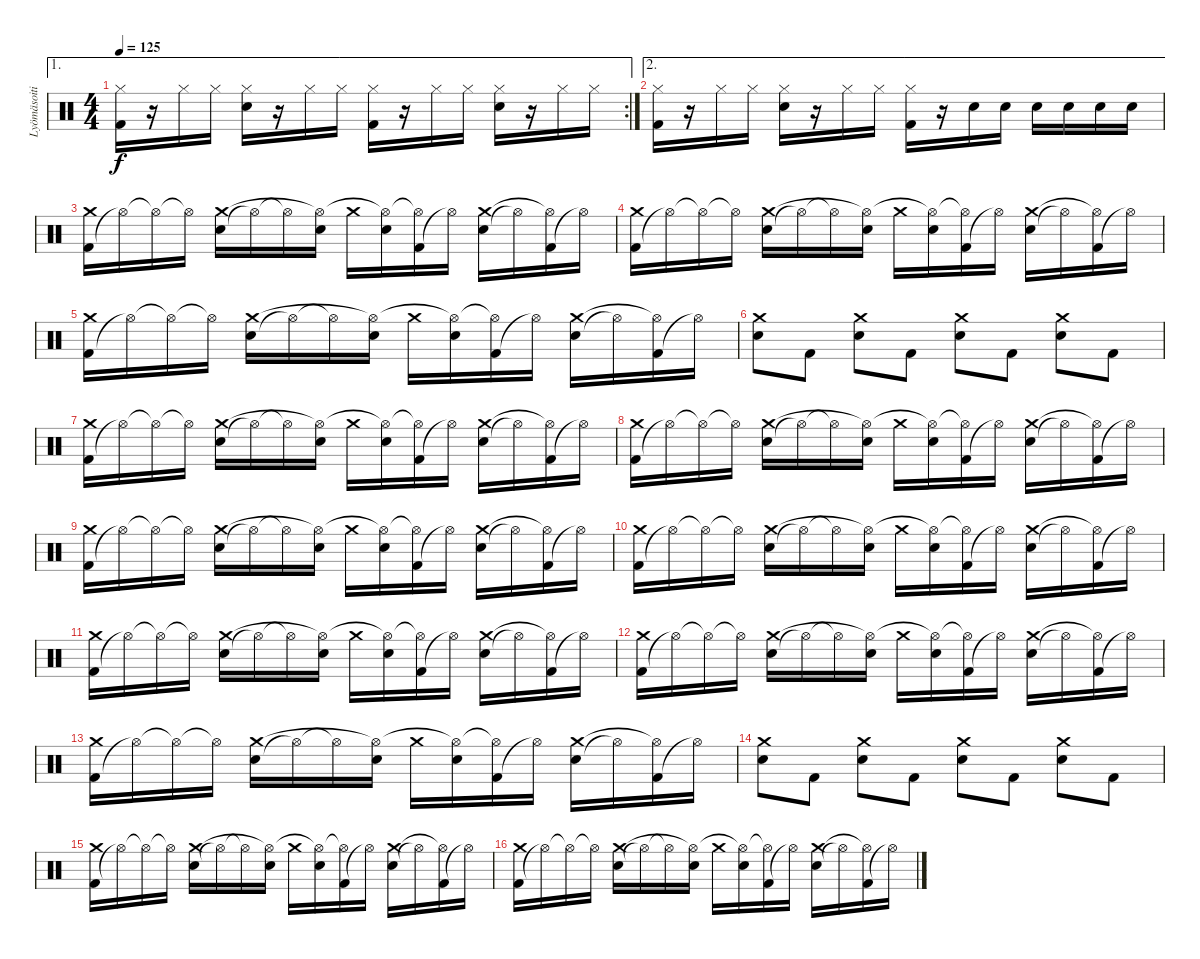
\track ("Lyömäsoitin" "Lyömäsoiti") {instrument percussion}
\staff {score}
\articulation defaults
\ae 1
\rc 2
\ts (4 4)
\tempo 125
\clef neutral
\ks c
("Kick (hit) 2" "Hi-Hat (closed)").16{dy f} r.16 "Hi-Hat (closed)".16 "Hi-Hat (closed)".16 ("Electric Snare (hit)" "Hi-Hat (closed)").16 r.16 "Hi-Hat (closed)".16 "Hi-Hat (closed)".16 ("Kick (hit) 2" "Hi-Hat (closed)").16 r.16 "Hi-Hat (closed)".16 "Hi-Hat (closed)".16 ("Electric Snare (hit)" "Hi-Hat (closed)").16 r.16 "Hi-Hat (closed)".16 "Hi-Hat (closed)".16 |
\ae 2
("Kick (hit) 2" "Hi-Hat (closed)").16 r.16 "Hi-Hat (closed)".16 "Hi-Hat (closed)".16 ("Electric Snare (hit)" "Hi-Hat (closed)").16 r.16 "Hi-Hat (closed)".16 "Hi-Hat (closed)".16 ("Kick (hit) 2" "Hi-Hat (closed)").16 r.16 "Electric Snare (hit)".16 "Electric Snare (hit)".16 "Electric Snare (hit)".16 "Electric Snare (hit)".16 "Electric Snare (hit)".16 "Electric Snare (hit)".16 |
("Kick (hit) 2" "Crash medium (hit)").16 "Hi-Hat (open)"{t}.16 "Hi-Hat (open)"{t}.16 "Hi-Hat (open)"{t}.16 ("Electric Snare (hit)" "Crash medium (hit)").16 "Hi-Hat (open)"{t}.16 "Hi-Hat (open)"{t}.16 ("Electric Snare (hit)" "Hi-Hat (open)"{t}).16 "Crash medium (hit)".16 ("Electric Snare (hit)" "Hi-Hat (open)"{t}).16 ("Kick (hit) 2" "Hi-Hat (open)"{t}).16 "Hi-Hat (open)"{t}.16 ("Electric Snare (hit)" "Crash medium (hit)").16 "Hi-Hat (open)"{t}.16 ("Kick (hit) 2" "Hi-Hat (open)"{t}).16 "Hi-Hat (open)"{t}.16 |
("Kick (hit) 2" "Crash medium (hit)").16 "Hi-Hat (open)"{t}.16 "Hi-Hat (open)"{t}.16 "Hi-Hat (open)"{t}.16 ("Electric Snare (hit)" "Crash medium (hit)").16 "Hi-Hat (open)"{t}.16 "Hi-Hat (open)"{t}.16 ("Electric Snare (hit)" "Hi-Hat (open)"{t}).16 "Crash medium (hit)".16 ("Electric Snare (hit)" "Hi-Hat (open)"{t}).16 ("Kick (hit) 2" "Hi-Hat (open)"{t}).16 "Hi-Hat (open)"{t}.16 ("Electric Snare (hit)" "Crash medium (hit)").16 "Hi-Hat (open)"{t}.16 ("Kick (hit) 2" "Hi-Hat (open)"{t}).16 "Hi-Hat (open)"{t}.16 |
("Kick (hit) 2" "Crash medium (hit)").16 "Hi-Hat (open)"{t}.16 "Hi-Hat (open)"{t}.16 "Hi-Hat (open)"{t}.16 ("Electric Snare (hit)" "Crash medium (hit)").16 "Hi-Hat (open)"{t}.16 "Hi-Hat (open)"{t}.16 ("Electric Snare (hit)" "Hi-Hat (open)"{t}).16 "Crash medium (hit)".16 ("Electric Snare (hit)" "Hi-Hat (open)"{t}).16 ("Kick (hit) 2" "Hi-Hat (open)"{t}).16 "Hi-Hat (open)"{t}.16 ("Electric Snare (hit)" "Crash medium (hit)").16 "Hi-Hat (open)"{t}.16 ("Kick (hit) 2" "Hi-Hat (open)"{t}).16 "Hi-Hat (open)"{t}.16 |
("Crash medium (hit)" "Electric Snare (hit)").8 "Kick (hit) 2".8 ("Crash medium (hit)" "Electric Snare (hit)").8 "Kick (hit) 2".8 ("Crash medium (hit)" "Electric Snare (hit)").8 "Kick (hit) 2".8 ("Crash medium (hit)" "Electric Snare (hit)").8 "Kick (hit) 2".8 |
("Kick (hit) 2" "Crash medium (hit)").16 "Hi-Hat (open)"{t}.16 "Hi-Hat (open)"{t}.16 "Hi-Hat (open)"{t}.16 ("Electric Snare (hit)" "Crash medium (hit)").16 "Hi-Hat (open)"{t}.16 "Hi-Hat (open)"{t}.16 ("Electric Snare (hit)" "Hi-Hat (open)"{t}).16 "Crash medium (hit)".16 ("Electric Snare (hit)" "Hi-Hat (open)"{t}).16 ("Kick (hit) 2" "Hi-Hat (open)"{t}).16 "Hi-Hat (open)"{t}.16 ("Electric Snare (hit)" "Crash medium (hit)").16 "Hi-Hat (open)"{t}.16 ("Kick (hit) 2" "Hi-Hat (open)"{t}).16 "Hi-Hat (open)"{t}.16 |
("Kick (hit) 2" "Crash medium (hit)").16 "Hi-Hat (open)"{t}.16 "Hi-Hat (open)"{t}.16 "Hi-Hat (open)"{t}.16 ("Electric Snare (hit)" "Crash medium (hit)").16 "Hi-Hat (open)"{t}.16 "Hi-Hat (open)"{t}.16 ("Electric Snare (hit)" "Hi-Hat (open)"{t}).16 "Crash medium (hit)".16 ("Electric Snare (hit)" "Hi-Hat (open)"{t}).16 ("Kick (hit) 2" "Hi-Hat (open)"{t}).16 "Hi-Hat (open)"{t}.16 ("Electric Snare (hit)" "Crash medium (hit)").16 "Hi-Hat (open)"{t}.16 ("Kick (hit) 2" "Hi-Hat (open)"{t}).16 "Hi-Hat (open)"{t}.16 |
("Kick (hit) 2" "Crash medium (hit)").16 "Hi-Hat (open)"{t}.16 "Hi-Hat (open)"{t}.16 "Hi-Hat (open)"{t}.16 ("Electric Snare (hit)" "Crash medium (hit)").16 "Hi-Hat (open)"{t}.16 "Hi-Hat (open)"{t}.16 ("Electric Snare (hit)" "Hi-Hat (open)"{t}).16 "Crash medium (hit)".16 ("Electric Snare (hit)" "Hi-Hat (open)"{t}).16 ("Kick (hit) 2" "Hi-Hat (open)"{t}).16 "Hi-Hat (open)"{t}.16 ("Electric Snare (hit)" "Crash medium (hit)").16 "Hi-Hat (open)"{t}.16 ("Kick (hit) 2" "Hi-Hat (open)"{t}).16 "Hi-Hat (open)"{t}.16 |
("Kick (hit) 2" "Crash medium (hit)").16 "Hi-Hat (open)"{t}.16 "Hi-Hat (open)"{t}.16 "Hi-Hat (open)"{t}.16 ("Electric Snare (hit)" "Crash medium (hit)").16 "Hi-Hat (open)"{t}.16 "Hi-Hat (open)"{t}.16 ("Electric Snare (hit)" "Hi-Hat (open)"{t}).16 "Crash medium (hit)".16 ("Electric Snare (hit)" "Hi-Hat (open)"{t}).16 ("Kick (hit) 2" "Hi-Hat (open)"{t}).16 "Hi-Hat (open)"{t}.16 ("Electric Snare (hit)" "Crash medium (hit)").16 "Hi-Hat (open)"{t}.16 ("Kick (hit) 2" "Hi-Hat (open)"{t}).16 "Hi-Hat (open)"{t}.16 |
("Kick (hit) 2" "Crash medium (hit)").16 "Hi-Hat (open)"{t}.16 "Hi-Hat (open)"{t}.16 "Hi-Hat (open)"{t}.16 ("Electric Snare (hit)" "Crash medium (hit)").16 "Hi-Hat (open)"{t}.16 "Hi-Hat (open)"{t}.16 ("Electric Snare (hit)" "Hi-Hat (open)"{t}).16 "Crash medium (hit)".16 ("Electric Snare (hit)" "Hi-Hat (open)"{t}).16 ("Kick (hit) 2" "Hi-Hat (open)"{t}).16 "Hi-Hat (open)"{t}.16 ("Electric Snare (hit)" "Crash medium (hit)").16 "Hi-Hat (open)"{t}.16 ("Kick (hit) 2" "Hi-Hat (open)"{t}).16 "Hi-Hat (open)"{t}.16 |
("Kick (hit) 2" "Crash medium (hit)").16 "Hi-Hat (open)"{t}.16 "Hi-Hat (open)"{t}.16 "Hi-Hat (open)"{t}.16 ("Electric Snare (hit)" "Crash medium (hit)").16 "Hi-Hat (open)"{t}.16 "Hi-Hat (open)"{t}.16 ("Electric Snare (hit)" "Hi-Hat (open)"{t}).16 "Crash medium (hit)".16 ("Electric Snare (hit)" "Hi-Hat (open)"{t}).16 ("Kick (hit) 2" "Hi-Hat (open)"{t}).16 "Hi-Hat (open)"{t}.16 ("Electric Snare (hit)" "Crash medium (hit)").16 "Hi-Hat (open)"{t}.16 ("Kick (hit) 2" "Hi-Hat (open)"{t}).16 "Hi-Hat (open)"{t}.16 |
("Kick (hit) 2" "Crash medium (hit)").16 "Hi-Hat (open)"{t}.16 "Hi-Hat (open)"{t}.16 "Hi-Hat (open)"{t}.16 ("Electric Snare (hit)" "Crash medium (hit)").16 "Hi-Hat (open)"{t}.16 "Hi-Hat (open)"{t}.16 ("Electric Snare (hit)" "Hi-Hat (open)"{t}).16 "Crash medium (hit)".16 ("Electric Snare (hit)" "Hi-Hat (open)"{t}).16 ("Kick (hit) 2" "Hi-Hat (open)"{t}).16 "Hi-Hat (open)"{t}.16 ("Electric Snare (hit)" "Crash medium (hit)").16 "Hi-Hat (open)"{t}.16 ("Kick (hit) 2" "Hi-Hat (open)"{t}).16 "Hi-Hat (open)"{t}.16 |
("Crash medium (hit)" "Electric Snare (hit)").8 "Kick (hit) 2".8 ("Crash medium (hit)" "Electric Snare (hit)").8 "Kick (hit) 2".8 ("Crash medium (hit)" "Electric Snare (hit)").8 "Kick (hit) 2".8 ("Crash medium (hit)" "Electric Snare (hit)").8 "Kick (hit) 2".8 |
("Kick (hit) 2" "Crash medium (hit)").16 "Hi-Hat (open)"{t}.16 "Hi-Hat (open)"{t}.16 "Hi-Hat (open)"{t}.16 ("Electric Snare (hit)" "Crash medium (hit)").16 "Hi-Hat (open)"{t}.16 "Hi-Hat (open)"{t}.16 ("Electric Snare (hit)" "Hi-Hat (open)"{t}).16 "Crash medium (hit)".16 ("Electric Snare (hit)" "Hi-Hat (open)"{t}).16 ("Kick (hit) 2" "Hi-Hat (open)"{t}).16 "Hi-Hat (open)"{t}.16 ("Electric Snare (hit)" "Crash medium (hit)").16 "Hi-Hat (open)"{t}.16 ("Kick (hit) 2" "Hi-Hat (open)"{t}).16 "Hi-Hat (open)"{t}.16 |
("Kick (hit) 2" "Crash medium (hit)").16 "Hi-Hat (open)"{t}.16 "Hi-Hat (open)"{t}.16 "Hi-Hat (open)"{t}.16 ("Electric Snare (hit)" "Crash medium (hit)").16 "Hi-Hat (open)"{t}.16 "Hi-Hat (open)"{t}.16 ("Electric Snare (hit)" "Hi-Hat (open)"{t}).16 "Crash medium (hit)".16 ("Electric Snare (hit)" "Hi-Hat (open)"{t}).16 ("Kick (hit) 2" "Hi-Hat (open)"{t}).16 "Hi-Hat (open)"{t}.16 ("Electric Snare (hit)" "Crash medium (hit)").16 "Hi-Hat (open)"{t}.16 ("Kick (hit) 2" "Hi-Hat (open)"{t}).16 "Hi-Hat (open)"{t}.16
